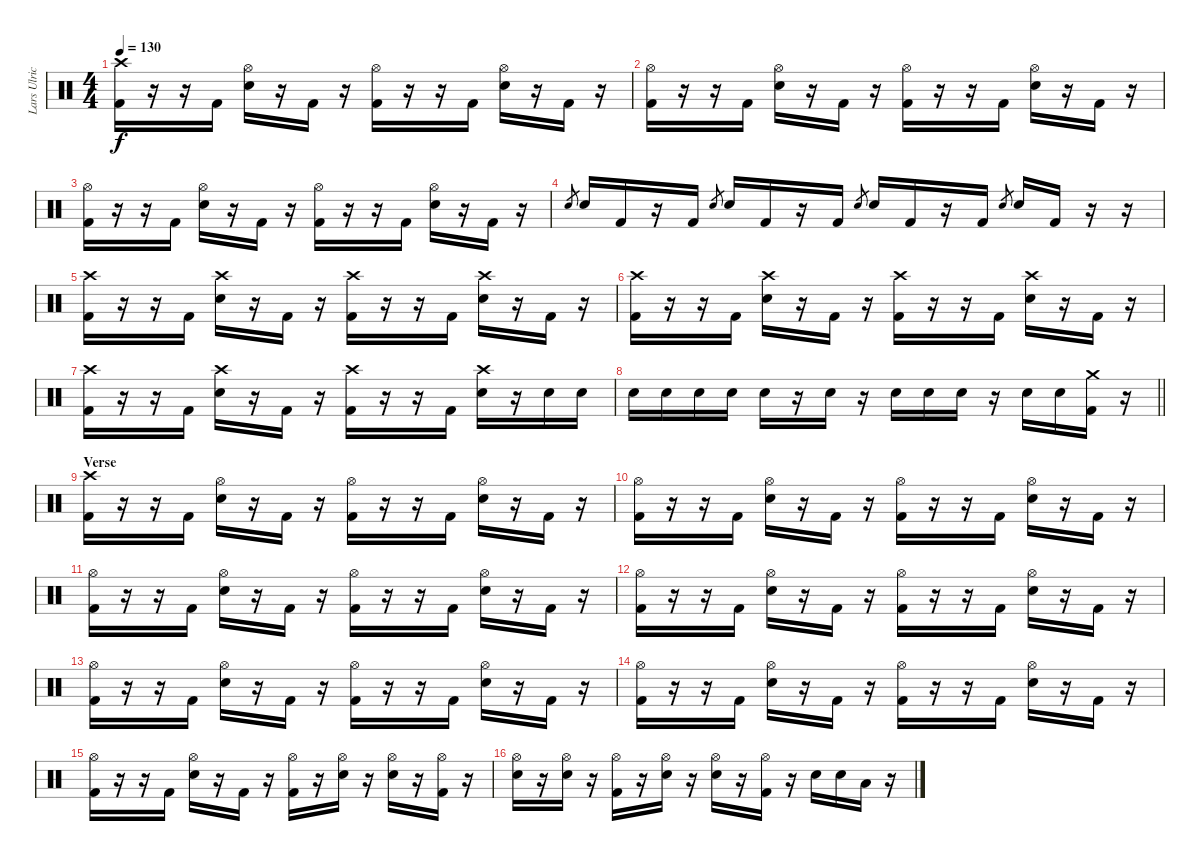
\track ("Lars Ulrich" "Lars Ulric") {instrument percussion}
\staff {score}
\articulation defaults
\ts (4 4)
\tempo 130
\clef neutral
\ks c
("Crash high (hit)" "Kick (hit) 2").16{dy f} r.16 r.16 "Kick (hit) 2".16 ("Electric Snare (hit)" "Hi-Hat (open)").16 r.16 "Kick (hit) 2".16 r.16 ("Hi-Hat (open)" "Kick (hit) 2").16 r.16 r.16 "Kick (hit) 2".16 ("Electric Snare (hit)" "Hi-Hat (open)").16 r.16 "Kick (hit) 2".16 r.16 |
("Hi-Hat (open)" "Kick (hit) 2").16 r.16 r.16 "Kick (hit) 2".16 ("Electric Snare (hit)" "Hi-Hat (open)").16 r.16 "Kick (hit) 2".16 r.16 ("Hi-Hat (open)" "Kick (hit) 2").16 r.16 r.16 "Kick (hit) 2".16 ("Electric Snare (hit)" "Hi-Hat (open)").16 r.16 "Kick (hit) 2".16 r.16 |
("Hi-Hat (open)" "Kick (hit) 2").16 r.16 r.16 "Kick (hit) 2".16 ("Electric Snare (hit)" "Hi-Hat (open)").16 r.16 "Kick (hit) 2".16 r.16 ("Hi-Hat (open)" "Kick (hit) 2").16 r.16 r.16 "Kick (hit) 2".16 ("Electric Snare (hit)" "Hi-Hat (open)").16 r.16 "Kick (hit) 2".16 r.16 |
"Electric Snare (hit)".8{gr} "Electric Snare (hit)".16 "Kick (hit) 2".16 r.16 "Kick (hit) 2".16 "Electric Snare (hit)".8{gr} "Electric Snare (hit)".16 "Kick (hit) 2".16 r.16 "Kick (hit) 2".16 "Electric Snare (hit)".8{gr} "Electric Snare (hit)".16 "Kick (hit) 2".16 r.16 "Kick (hit) 2".16 "Electric Snare (hit)".8{gr} "Electric Snare (hit)".16 "Kick (hit) 2".16 r.16 r.16 |
("Crash high (hit)" "Kick (hit) 2").16 r.16 r.16 "Kick (hit) 2".16 ("Crash high (hit)" "Electric Snare (hit)").16 r.16 "Kick (hit) 2".16 r.16 ("Crash high (hit)" "Kick (hit) 2").16 r.16 r.16 "Kick (hit) 2".16 ("Crash high (hit)" "Electric Snare (hit)").16 r.16 "Kick (hit) 2".16 r.16 |
("Crash high (hit)" "Kick (hit) 2").16 r.16 r.16 "Kick (hit) 2".16 ("Crash high (hit)" "Electric Snare (hit)").16 r.16 "Kick (hit) 2".16 r.16 ("Crash high (hit)" "Kick (hit) 2").16 r.16 r.16 "Kick (hit) 2".16 ("Crash high (hit)" "Electric Snare (hit)").16 r.16 "Kick (hit) 2".16 r.16 |
("Crash high (hit)" "Kick (hit) 2").16 r.16 r.16 "Kick (hit) 2".16 ("Crash high (hit)" "Electric Snare (hit)").16 r.16 "Kick (hit) 2".16 r.16 ("Crash high (hit)" "Kick (hit) 2").16 r.16 r.16 "Kick (hit) 2".16 ("Crash high (hit)" "Electric Snare (hit)").16 r.16 "Electric Snare (hit)".16 "Electric Snare (hit)".16 |
\barLineRight lightlight "Electric Snare (hit)".16 "Electric Snare (hit)".16 "Electric Snare (hit)".16 "Electric Snare (hit)".16 "Electric Snare (hit)".16
r.16 "Electric Snare (hit)".16 r.16 "Electric Snare (hit)".16 "Electric Snare (hit)".16 "Electric Snare (hit)".16 r.16 "Electric Snare (hit)".16 "Electric Snare (hit)".16 ("Crash medium (hit)" "Kick (hit) 2").16 r.16 |
\section ("" "Verse")
("Crash high (hit)" "Kick (hit) 2").16 r.16 r.16 "Kick (hit) 2".16 ("Electric Snare (hit)" "Hi-Hat (open)").16 r.16 "Kick (hit) 2".16 r.16 ("Hi-Hat (open)" "Kick (hit) 2").16 r.16 r.16 "Kick (hit) 2".16 ("Electric Snare (hit)" "Hi-Hat (open)").16 r.16 "Kick (hit) 2".16 r.16 |
("Hi-Hat (open)" "Kick (hit) 2").16 r.16 r.16 "Kick (hit) 2".16 ("Electric Snare (hit)" "Hi-Hat (open)").16 r.16 "Kick (hit) 2".16 r.16 ("Hi-Hat (open)" "Kick (hit) 2").16 r.16 r.16 "Kick (hit) 2".16 ("Electric Snare (hit)" "Hi-Hat (open)").16 r.16 "Kick (hit) 2".16 r.16 |
("Hi-Hat (open)" "Kick (hit) 2").16 r.16 r.16 "Kick (hit) 2".16 ("Electric Snare (hit)" "Hi-Hat (open)").16 r.16 "Kick (hit) 2".16 r.16 ("Hi-Hat (open)" "Kick (hit) 2").16 r.16 r.16 "Kick (hit) 2".16 ("Electric Snare (hit)" "Hi-Hat (open)").16 r.16 "Kick (hit) 2".16 r.16 |
("Hi-Hat (open)" "Kick (hit) 2").16 r.16 r.16 "Kick (hit) 2".16 ("Electric Snare (hit)" "Hi-Hat (open)").16 r.16 "Kick (hit) 2".16 r.16 ("Hi-Hat (open)" "Kick (hit) 2").16 r.16 r.16 "Kick (hit) 2".16 ("Electric Snare (hit)" "Hi-Hat (open)").16 r.16 "Kick (hit) 2".16 r.16 |
("Hi-Hat (open)" "Kick (hit) 2").16 r.16 r.16 "Kick (hit) 2".16 ("Electric Snare (hit)" "Hi-Hat (open)").16 r.16 "Kick (hit) 2".16 r.16 ("Hi-Hat (open)" "Kick (hit) 2").16 r.16 r.16 "Kick (hit) 2".16 ("Electric Snare (hit)" "Hi-Hat (open)").16 r.16 "Kick (hit) 2".16 r.16 |
("Hi-Hat (open)" "Kick (hit) 2").16 r.16 r.16 "Kick (hit) 2".16 ("Electric Snare (hit)" "Hi-Hat (open)").16 r.16 "Kick (hit) 2".16 r.16 ("Hi-Hat (open)" "Kick (hit) 2").16 r.16 r.16 "Kick (hit) 2".16 ("Electric Snare (hit)" "Hi-Hat (open)").16 r.16 "Kick (hit) 2".16 r.16 |
("Hi-Hat (open)" "Kick (hit) 2").16 r.16 r.16 "Kick (hit) 2".16 ("Electric Snare (hit)" "Hi-Hat (open)").16 r.16 "Kick (hit) 2".16 r.16 ("Hi-Hat (open)" "Kick (hit) 2").16 r.16 ("Electric Snare (hit)" "Hi-Hat (open)").16 r.16 ("Electric Snare (hit)" "Hi-Hat (open)").16 r.16 ("Hi-Hat (open)" "Kick (hit) 2").16 r.16 |
("Electric Snare (hit)" "Hi-Hat (open)").16 r.16 ("Electric Snare (hit)" "Hi-Hat (open)").16 r.16 ("Hi-Hat (open)" "Kick (hit) 2").16 r.16 ("Electric Snare (hit)" "Hi-Hat (open)").16 r.16 ("Electric Snare (hit)" "Hi-Hat (open)").16 r.16 ("Hi-Hat (open)" "Kick (hit) 2").16 r.16 "Electric Snare (hit)".16 "Electric Snare (hit)".16 "Low Tom (hit)".16 r.16
